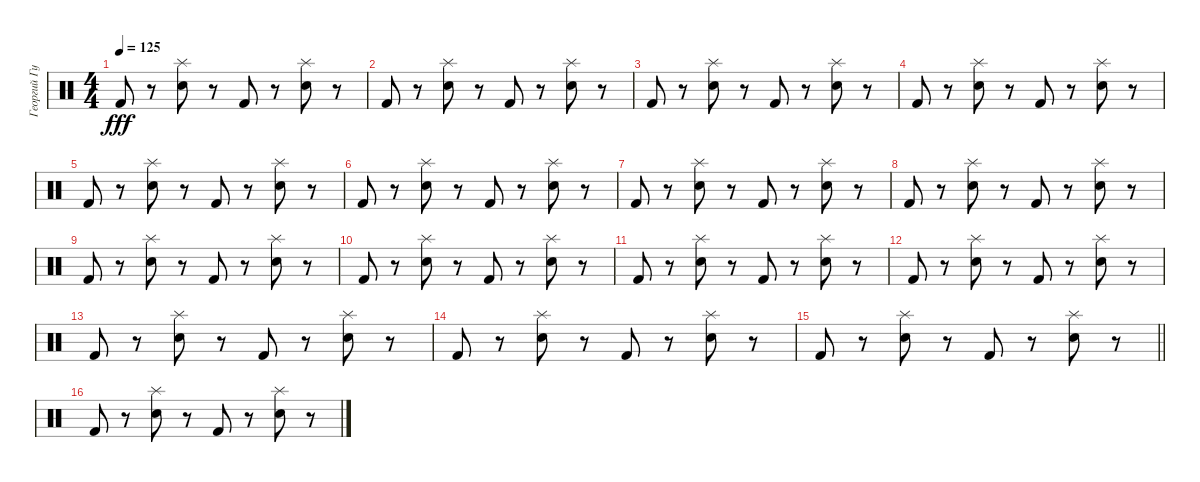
\track ("Георгий Гурьянов" "Георгий Гу") {instrument percussion}
\staff {score}
\articulation defaults
\ts (4 4)
\tempo 125
\clef neutral
\ks c "Kick (hit) 2".8{dy fff}
r.8 ("Snare (hit) 2" "Splash (hit)").8 r.8 "Kick (hit) 2".8 r.8 ("Snare (hit) 2" "Splash (hit)").8 r.8 |
"Kick (hit) 2".8 r.8 ("Snare (hit) 2" "Splash (hit)").8 r.8 "Kick (hit) 2".8 r.8 ("Snare (hit) 2" "Splash (hit)").8 r.8 |
"Kick (hit) 2".8 r.8 ("Snare (hit) 2" "Splash (hit)").8 r.8 "Kick (hit) 2".8 r.8 ("Snare (hit) 2" "Splash (hit)").8 r.8 |
"Kick (hit) 2".8 r.8 ("Snare (hit) 2" "Splash (hit)").8 r.8 "Kick (hit) 2".8 r.8 ("Snare (hit) 2" "Splash (hit)").8 r.8 |
"Kick (hit) 2".8 r.8 ("Snare (hit) 2" "Splash (hit)").8 r.8 "Kick (hit) 2".8 r.8 ("Snare (hit) 2" "Splash (hit)").8 r.8 |
"Kick (hit) 2".8 r.8 ("Snare (hit) 2" "Splash (hit)").8 r.8 "Kick (hit) 2".8 r.8 ("Snare (hit) 2" "Splash (hit)").8 r.8 |
"Kick (hit) 2".8 r.8 ("Snare (hit) 2" "Splash (hit)").8 r.8 "Kick (hit) 2".8 r.8 ("Snare (hit) 2" "Splash (hit)").8 r.8 |
"Kick (hit) 2".8 r.8 ("Snare (hit) 2" "Splash (hit)").8 r.8 "Kick (hit) 2".8 r.8 ("Snare (hit) 2" "Splash (hit)").8 r.8 |
"Kick (hit) 2".8 r.8 ("Snare (hit) 2" "Splash (hit)").8 r.8 "Kick (hit) 2".8 r.8 ("Snare (hit) 2" "Splash (hit)").8 r.8 |
"Kick (hit) 2".8 r.8 ("Snare (hit) 2" "Splash (hit)").8 r.8 "Kick (hit) 2".8 r.8 ("Snare (hit) 2" "Splash (hit)").8 r.8 |
"Kick (hit) 2".8 r.8 ("Snare (hit) 2" "Splash (hit)").8 r.8 "Kick (hit) 2".8 r.8 ("Snare (hit) 2" "Splash (hit)").8 r.8 |
"Kick (hit) 2".8 r.8 ("Snare (hit) 2" "Splash (hit)").8 r.8 "Kick (hit) 2".8 r.8 ("Snare (hit) 2" "Splash (hit)").8 r.8 |
"Kick (hit) 2".8 r.8 ("Snare (hit) 2" "Splash (hit)").8 r.8 "Kick (hit) 2".8 r.8 ("Snare (hit) 2" "Splash (hit)").8 r.8 |
"Kick (hit) 2".8 r.8 ("Snare (hit) 2" "Splash (hit)").8 r.8 "Kick (hit) 2".8 r.8 ("Snare (hit) 2" "Splash (hit)").8 r.8 |
\barLineRight lightlight "Kick (hit) 2".8
r.8 ("Snare (hit) 2" "Splash (hit)").8 r.8 "Kick (hit) 2".8 r.8 ("Snare (hit) 2" "Splash (hit)").8 r.8 |
"Kick (hit) 2".8 r.8 ("Snare (hit) 2" "Splash (hit)").8 r.8 "Kick (hit) 2".8 r.8 ("Snare (hit) 2" "Splash (hit)").8 r.8
